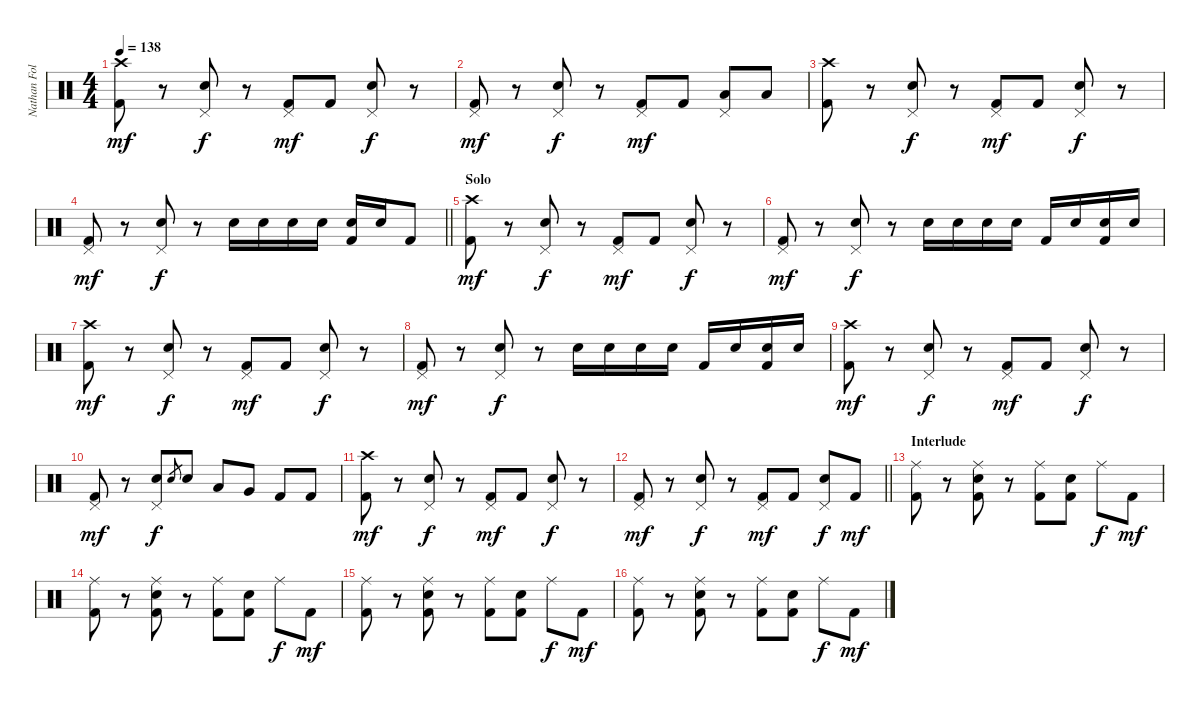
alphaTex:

\track ("Nathan Followill" "Nathan Fol") {instrument percussion}
\staff {score}
\articulation defaults
\ts (4 4)
\tempo 138
\clef neutral
\ks c
("Crash high (hit)" "Kick (hit) 2").8{dy mf} r.8 ("Pedal Hi-Hat (hit)" "Snare (hit) 2").8{dy f} r.8 ("Pedal Hi-Hat (hit)" "Kick (hit) 2").8{dy mf} "Kick (hit) 2".8 ("Pedal Hi-Hat (hit)" "Snare (hit) 2").8{dy f} r.8 |
("Pedal Hi-Hat (hit)" "Kick (hit) 2").8{dy mf} r.8 ("Pedal Hi-Hat (hit)" "Snare (hit) 2").8{dy f} r.8 ("Pedal Hi-Hat (hit)" "Kick (hit) 2").8{dy mf} "Kick (hit) 2".8 ("Pedal Hi-Hat (hit)" "Low Floor Tom (hit)").8 "Low Floor Tom (hit)".8 |
("Crash high (hit)" "Kick (hit) 2").8 r.8 ("Pedal Hi-Hat (hit)" "Snare (hit) 2").8{dy f} r.8 ("Pedal Hi-Hat (hit)" "Kick (hit) 2").8{dy mf} "Kick (hit) 2".8 ("Pedal Hi-Hat (hit)" "Snare (hit) 2").8{dy f} r.8 |
\barLineRight lightlight
("Pedal Hi-Hat (hit)" "Kick (hit) 2").8{dy mf} r.8 ("Pedal Hi-Hat (hit)" "Snare (hit) 2").8{dy f} r.8 "Snare (hit) 2".16 "Snare (hit) 2".16 "Snare (hit) 2".16 "Snare (hit) 2".16 ("Snare (hit) 2" "Kick (hit) 2").16 "Snare (hit) 2".16 "Kick (hit) 2".8 |
\section ("" "Solo")
("Crash high (hit)" "Kick (hit) 2").8{dy mf} r.8 ("Pedal Hi-Hat (hit)" "Snare (hit) 2").8{dy f} r.8 ("Pedal Hi-Hat (hit)" "Kick (hit) 2").8{dy mf} "Kick (hit) 2".8 ("Pedal Hi-Hat (hit)" "Snare (hit) 2").8{dy f} r.8 |
("Pedal Hi-Hat (hit)" "Kick (hit) 2").8{dy mf} r.8 ("Pedal Hi-Hat (hit)" "Snare (hit) 2").8{dy f} r.8 "Snare (hit) 2".16 "Snare (hit) 2".16 "Snare (hit) 2".16 "Snare (hit) 2".16 "Kick (hit) 2".16 "Snare (hit) 2".16 ("Snare (hit) 2" "Kick (hit) 2").16 "Snare (hit) 2".16 |
("Crash high (hit)" "Kick (hit) 2").8{dy mf} r.8 ("Pedal Hi-Hat (hit)" "Snare (hit) 2").8{dy f} r.8 ("Pedal Hi-Hat (hit)" "Kick (hit) 2").8{dy mf} "Kick (hit) 2".8 ("Pedal Hi-Hat (hit)" "Snare (hit) 2").8{dy f} r.8 |
("Pedal Hi-Hat (hit)" "Kick (hit) 2").8{dy mf} r.8 ("Pedal Hi-Hat (hit)" "Snare (hit) 2").8{dy f} r.8 "Snare (hit) 2".16 "Snare (hit) 2".16 "Snare (hit) 2".16 "Snare (hit) 2".16 "Kick (hit) 2".16 "Snare (hit) 2".16 ("Snare (hit) 2" "Kick (hit) 2").16 "Snare (hit) 2".16 |
("Crash high (hit)" "Kick (hit) 2").8{dy mf} r.8 ("Pedal Hi-Hat (hit)" "Snare (hit) 2").8{dy f} r.8 ("Pedal Hi-Hat (hit)" "Kick (hit) 2").8{dy mf} "Kick (hit) 2".8 ("Pedal Hi-Hat (hit)" "Snare (hit) 2").8{dy f} r.8 |
("Pedal Hi-Hat (hit)" "Kick (hit) 2").8{dy mf} r.8 ("Pedal Hi-Hat (hit)" "Snare (hit) 2").8{dy f} "Snare (hit) 2".8{gr} "Snare (hit) 2".8 "Low Tom (hit)".8 "Very Low Tom (hit)".8 "Kick (hit) 2".8 "Kick (hit) 2".8 |
("Crash high (hit)" "Kick (hit) 2").8{dy mf} r.8 ("Pedal Hi-Hat (hit)" "Snare (hit) 2").8{dy f} r.8 ("Pedal Hi-Hat (hit)" "Kick (hit) 2").8{dy mf} "Kick (hit) 2".8 ("Pedal Hi-Hat (hit)" "Snare (hit) 2").8{dy f} r.8 |
\barLineRight lightlight
("Pedal Hi-Hat (hit)" "Kick (hit) 2").8{dy mf} r.8 ("Pedal Hi-Hat (hit)" "Snare (hit) 2").8{dy f} r.8 ("Pedal Hi-Hat (hit)" "Kick (hit) 2").8{dy mf} "Kick (hit) 2".8 ("Pedal Hi-Hat (hit)" "Snare (hit) 2").8{dy f} "Kick (hit) 2".8{dy mf} |
\section ("" "Interlude")
("Ride (middle)" "Kick (hit) 2").8 r.8 ("Ride (middle)" "Snare (hit) 2" "Kick (hit) 2").8 r.8 ("Ride (middle)" "Kick (hit) 2").8 ("Snare (hit) 2" "Kick (hit) 2").8 "Ride (middle)".8{dy f} "Kick (hit) 2".8{dy mf} |
("Ride (middle)" "Kick (hit) 2").8 r.8 ("Ride (middle)" "Snare (hit) 2" "Kick (hit) 2").8 r.8 ("Ride (middle)" "Kick (hit) 2").8 ("Snare (hit) 2" "Kick (hit) 2").8 "Ride (middle)".8{dy f} "Kick (hit) 2".8{dy mf} |
("Ride (middle)" "Kick (hit) 2").8 r.8 ("Ride (middle)" "Snare (hit) 2" "Kick (hit) 2").8 r.8 ("Ride (middle)" "Kick (hit) 2").8 ("Snare (hit) 2" "Kick (hit) 2").8 "Ride (middle)".8{dy f} "Kick (hit) 2".8{dy mf} |
("Ride (middle)" "Kick (hit) 2").8 r.8 ("Ride (middle)" "Snare (hit) 2" "Kick (hit) 2").8 r.8 ("Ride (middle)" "Kick (hit) 2").8 ("Snare (hit) 2" "Kick (hit) 2").8 "Ride (middle)".8{dy f} "Kick (hit) 2".8{dy mf}
